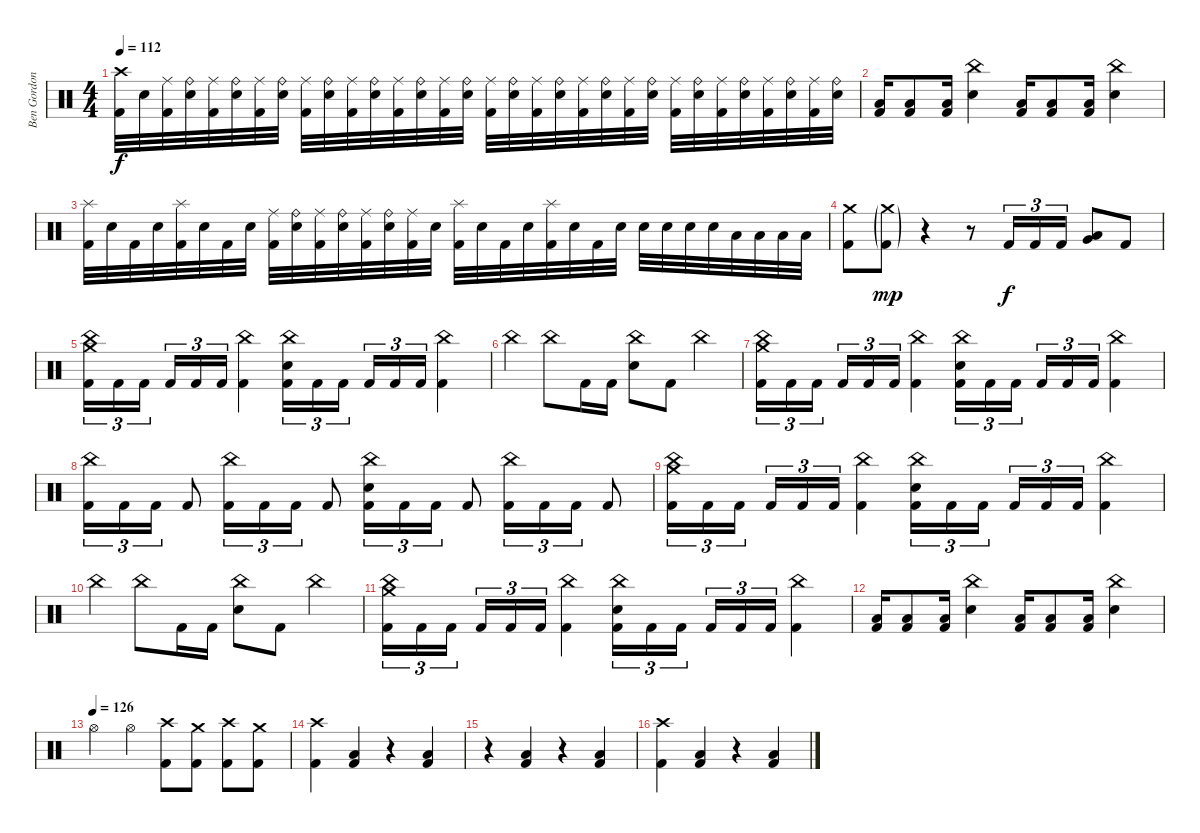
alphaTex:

\track ("Ben Gordon" "Ben Gordon") {instrument percussion}
\staff {score}
\articulation defaults
\ts (4 4)
\tempo 112
\clef neutral
\ks c
("Crash high (hit)" "Kick (hit) 2").32{dy f} "Electric Snare (hit)".32 ("Ride (middle)" "Kick (hit) 2").32 ("Ride (bell)" "Electric Snare (hit)").32 ("Ride (middle)" "Kick (hit) 2").32 ("Ride (bell)" "Electric Snare (hit)").32 ("Ride (middle)" "Kick (hit) 2").32 ("Ride (bell)" "Electric Snare (hit)").32 ("Ride (middle)" "Kick (hit) 2").32 ("Ride (bell)" "Electric Snare (hit)").32 ("Ride (middle)" "Kick (hit) 2").32 ("Ride (bell)" "Electric Snare (hit)").32 ("Ride (middle)" "Kick (hit) 2").32 ("Ride (bell)" "Electric Snare (hit)").32 ("Ride (middle)" "Kick (hit) 2").32 ("Ride (bell)" "Electric Snare (hit)").32 ("Ride (middle)" "Kick (hit) 2").32 ("Ride (bell)" "Electric Snare (hit)").32 ("Ride (middle)" "Kick (hit) 2").32 ("Ride (bell)" "Electric Snare (hit)").32 ("Ride (middle)" "Kick (hit) 2").32 ("Ride (bell)" "Electric Snare (hit)").32 ("Ride (middle)" "Kick (hit) 2").32 ("Ride (bell)" "Electric Snare (hit)").32 ("Ride (middle)" "Kick (hit) 2").32 ("Ride (bell)" "Electric Snare (hit)").32 ("Ride (middle)" "Kick (hit) 2").32 ("Ride (bell)" "Electric Snare (hit)").32 ("Ride (middle)" "Kick (hit) 2").32 ("Ride (bell)" "Electric Snare (hit)").32 ("Ride (middle)" "Kick (hit) 2").32 ("Ride (bell)" "Electric Snare (hit)").32 |
("Low Floor Tom (hit)" "Kick (hit) 2").16 ("Low Floor Tom (hit)" "Kick (hit) 2").8 ("Low Floor Tom (hit)" "Kick (hit) 2").16 ("China (hit)" "Electric Snare (hit)").4 ("Low Floor Tom (hit)" "Kick (hit) 2").16 ("Low Floor Tom (hit)" "Kick (hit) 2").8 ("Low Floor Tom (hit)" "Kick (hit) 2").16 ("China (hit)" "Electric Snare (hit)").4 |
("Splash (hit)" "Kick (hit) 2").32 "Electric Snare (hit)".32 "Kick (hit) 2".32 "Electric Snare (hit)".32 ("Splash (hit)" "Kick (hit) 2").32 "Electric Snare (hit)".32 "Kick (hit) 2".32 "Electric Snare (hit)".32 ("Ride (middle)" "Kick (hit) 2").32 ("Ride (bell)" "Electric Snare (hit)").32 ("Ride (middle)" "Kick (hit) 2").32 ("Ride (bell)" "Electric Snare (hit)").32 ("Ride (middle)" "Kick (hit) 2").32 ("Ride (bell)" "Electric Snare (hit)").32 ("Ride (middle)" "Kick (hit) 2").32 "Electric Snare (hit)".32 ("Splash (hit)" "Kick (hit) 2").32 "Electric Snare (hit)".32 "Kick (hit) 2".32 "Electric Snare (hit)".32 ("Splash (hit)" "Kick (hit) 2").32 "Electric Snare (hit)".32 "Kick (hit) 2".32 "Electric Snare (hit)".32 "Electric Snare (hit)".32 "Electric Snare (hit)".32 "Electric Snare (hit)".32 "Electric Snare (hit)".32 "Low Tom (hit)".32 "Low Tom (hit)".32 "Low Tom (hit)".32 "Low Tom (hit)".32 |
("Crash medium (hit)" "Kick (hit) 2").8 ("Crash medium (hit)"{g} "Kick (hit) 2"{g}).8{dy mp} r.4 r.8 "Kick (hit) 2".16{tu (3 2) dy f} "Kick (hit) 2".16{tu (3 2)} "Kick (hit) 2".16{tu (3 2)} ("Very Low Tom (hit)" "Low Tom (hit)").8 "Kick (hit) 2".8 |
("Crash medium (hit)" "China (hit)" "Kick (hit) 2").16{tu (3 2)} "Kick (hit) 2".16{tu (3 2)} "Kick (hit) 2".16{tu (3 2) beam splitsecondary} "Kick (hit) 2".16{tu (3 2)} "Kick (hit) 2".16{tu (3 2)} "Kick (hit) 2".16{tu (3 2)} ("China (hit)" "Kick (hit) 2").4 ("China (hit)" "Electric Snare (hit)" "Kick (hit) 2").16{tu (3 2)} "Kick (hit) 2".16{tu (3 2)} "Kick (hit) 2".16{tu (3 2) beam splitsecondary} "Kick (hit) 2".16{tu (3 2)} "Kick (hit) 2".16{tu (3 2)} "Kick (hit) 2".16{tu (3 2)} ("China (hit)" "Kick (hit) 2").4 |
"China (hit)".4 "China (hit)".8 "Kick (hit) 2".16 "Kick (hit) 2".16 ("China (hit)" "Electric Snare (hit)").8 "Kick (hit) 2".8 "China (hit)".4 |
("Crash medium (hit)" "China (hit)" "Kick (hit) 2").16{tu (3 2)} "Kick (hit) 2".16{tu (3 2)} "Kick (hit) 2".16{tu (3 2) beam splitsecondary} "Kick (hit) 2".16{tu (3 2)} "Kick (hit) 2".16{tu (3 2)} "Kick (hit) 2".16{tu (3 2)} ("China (hit)" "Kick (hit) 2").4 ("China (hit)" "Electric Snare (hit)" "Kick (hit) 2").16{tu (3 2)} "Kick (hit) 2".16{tu (3 2)} "Kick (hit) 2".16{tu (3 2) beam splitsecondary} "Kick (hit) 2".16{tu (3 2)} "Kick (hit) 2".16{tu (3 2)} "Kick (hit) 2".16{tu (3 2)} ("China (hit)" "Kick (hit) 2").4 |
("China (hit)" "Kick (hit) 2").16{tu (3 2)} "Kick (hit) 2".16{tu (3 2)} "Kick (hit) 2".16{tu (3 2)} "Kick (hit) 2".8 ("China (hit)" "Kick (hit) 2").16{tu (3 2)} "Kick (hit) 2".16{tu (3 2)} "Kick (hit) 2".16{tu (3 2)} "Kick (hit) 2".8 ("China (hit)" "Electric Snare (hit)" "Kick (hit) 2").16{tu (3 2)} "Kick (hit) 2".16{tu (3 2)} "Kick (hit) 2".16{tu (3 2)} "Kick (hit) 2".8 ("China (hit)" "Kick (hit) 2").16{tu (3 2)} "Kick (hit) 2".16{tu (3 2)} "Kick (hit) 2".16{tu (3 2)} "Kick (hit) 2".8 |
("Crash medium (hit)" "China (hit)" "Kick (hit) 2").16{tu (3 2)} "Kick (hit) 2".16{tu (3 2)} "Kick (hit) 2".16{tu (3 2) beam splitsecondary} "Kick (hit) 2".16{tu (3 2)} "Kick (hit) 2".16{tu (3 2)} "Kick (hit) 2".16{tu (3 2)} ("China (hit)" "Kick (hit) 2").4 ("China (hit)" "Electric Snare (hit)" "Kick (hit) 2").16{tu (3 2)} "Kick (hit) 2".16{tu (3 2)} "Kick (hit) 2".16{tu (3 2) beam splitsecondary} "Kick (hit) 2".16{tu (3 2)} "Kick (hit) 2".16{tu (3 2)} "Kick (hit) 2".16{tu (3 2)} ("China (hit)" "Kick (hit) 2").4 |
"China (hit)".4 "China (hit)".8 "Kick (hit) 2".16 "Kick (hit) 2".16 ("China (hit)" "Electric Snare (hit)").8 "Kick (hit) 2".8 "China (hit)".4 |
("Crash medium (hit)" "China (hit)" "Kick (hit) 2").16{tu (3 2)} "Kick (hit) 2".16{tu (3 2)} "Kick (hit) 2".16{tu (3 2) beam splitsecondary} "Kick (hit) 2".16{tu (3 2)} "Kick (hit) 2".16{tu (3 2)} "Kick (hit) 2".16{tu (3 2)} ("China (hit)" "Kick (hit) 2").4 ("China (hit)" "Electric Snare (hit)" "Kick (hit) 2").16{tu (3 2)} "Kick (hit) 2".16{tu (3 2)} "Kick (hit) 2".16{tu (3 2) beam splitsecondary} "Kick (hit) 2".16{tu (3 2)} "Kick (hit) 2".16{tu (3 2)} "Kick (hit) 2".16{tu (3 2)} ("China (hit)" "Kick (hit) 2").4 |
("Low Floor Tom (hit)" "Kick (hit) 2").16 ("Low Floor Tom (hit)" "Kick (hit) 2").8 ("Low Floor Tom (hit)" "Kick (hit) 2").16 ("China (hit)" "Electric Snare (hit)").4 ("Low Floor Tom (hit)" "Kick (hit) 2").16 ("Low Floor Tom (hit)" "Kick (hit) 2").8 ("Low Floor Tom (hit)" "Kick (hit) 2").16 ("China (hit)" "Electric Snare (hit)").4 |
\tempo 94
\tempo (126)
"Hi-Hat (open)".4 "Hi-Hat (open)".4 ("Crash high (hit)" "Kick (hit) 2").8 ("Crash medium (hit)" "Kick (hit) 2").8 ("Crash high (hit)" "Kick (hit) 2").8 ("Crash medium (hit)" "Kick (hit) 2").8 |
("Crash high (hit)" "Kick (hit) 2").4 ("Low Floor Tom (hit)" "Kick (hit) 2").4 r.4 ("Low Floor Tom (hit)" "Kick (hit) 2").4 |
r.4 ("Low Floor Tom (hit)" "Kick (hit) 2").4 r.4 ("Low Floor Tom (hit)" "Kick (hit) 2").4 |
("Crash high (hit)" "Kick (hit) 2").4 ("Low Floor Tom (hit)" "Kick (hit) 2").4 r.4 ("Low Floor Tom (hit)" "Kick (hit) 2").4
